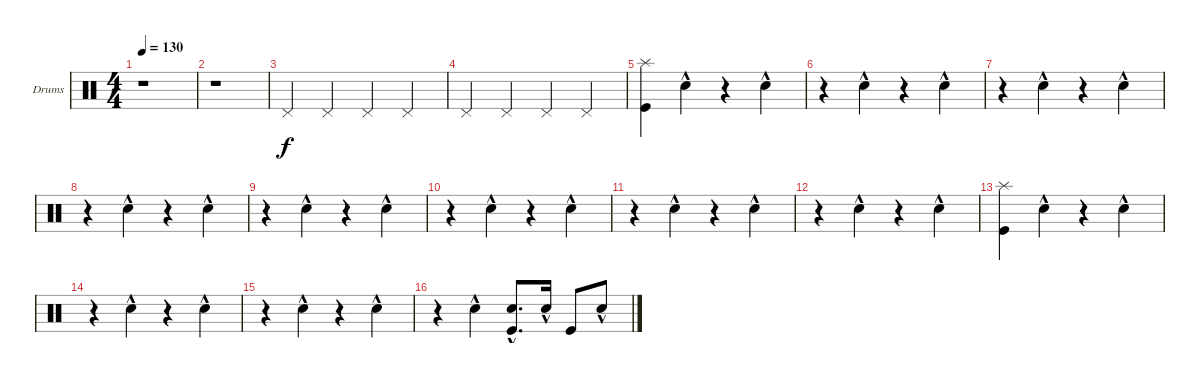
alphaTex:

\defaultSystemsLayout 4
\bracketExtendMode groupsimilarinstruments
\firstSystemTrackNameOrientation horizontal
\otherSystemsTrackNameOrientation horizontal
\track ("Inazawa" "Drums") {instrument percussion}
\staff {score}
\articulation defaults
\ts (4 4)
\tempo 130
\clef neutral
\ks c
r.1{dy f} |
r.1 |
"Pedal Hi-Hat (hit)".4 "Pedal Hi-Hat (hit)".4 "Pedal Hi-Hat (hit)".4 "Pedal Hi-Hat (hit)".4 |
"Pedal Hi-Hat (hit)".4 "Pedal Hi-Hat (hit)".4 "Pedal Hi-Hat (hit)".4 "Pedal Hi-Hat (hit)".4 |
("Kick (hit)" "Splash (hit)").4 "Snare (hit) 2"{hac}.4 r.4 "Snare (hit) 2"{hac}.4 |
r.4 "Snare (hit) 2"{hac}.4 r.4 "Snare (hit) 2"{hac}.4 |
r.4 "Snare (hit) 2"{hac}.4 r.4 "Snare (hit) 2"{hac}.4 |
r.4 "Snare (hit) 2"{hac}.4 r.4 "Snare (hit) 2"{hac}.4 |
r.4 "Snare (hit) 2"{hac}.4 r.4 "Snare (hit) 2"{hac}.4 |
r.4 "Snare (hit) 2"{hac}.4 r.4 "Snare (hit) 2"{hac}.4 |
r.4 "Snare (hit) 2"{hac}.4 r.4 "Snare (hit) 2"{hac}.4 |
r.4 "Snare (hit) 2"{hac}.4 r.4 "Snare (hit) 2"{hac}.4 |
("Kick (hit)" "Splash (hit)").4 "Snare (hit) 2"{hac}.4 r.4 "Snare (hit) 2"{hac}.4 |
r.4 "Snare (hit) 2"{hac}.4 r.4 "Snare (hit) 2"{hac}.4 |
r.4 "Snare (hit) 2"{hac}.4 r.4 "Snare (hit) 2"{hac}.4 |
r.4 "Snare (hit) 2"{hac}.4 ("Snare (hit) 2"{hac} "Kick (hit)").8{d} "Snare (hit) 2"{hac}.16 "Kick (hit)".8 "Snare (hit) 2"{hac}.8
